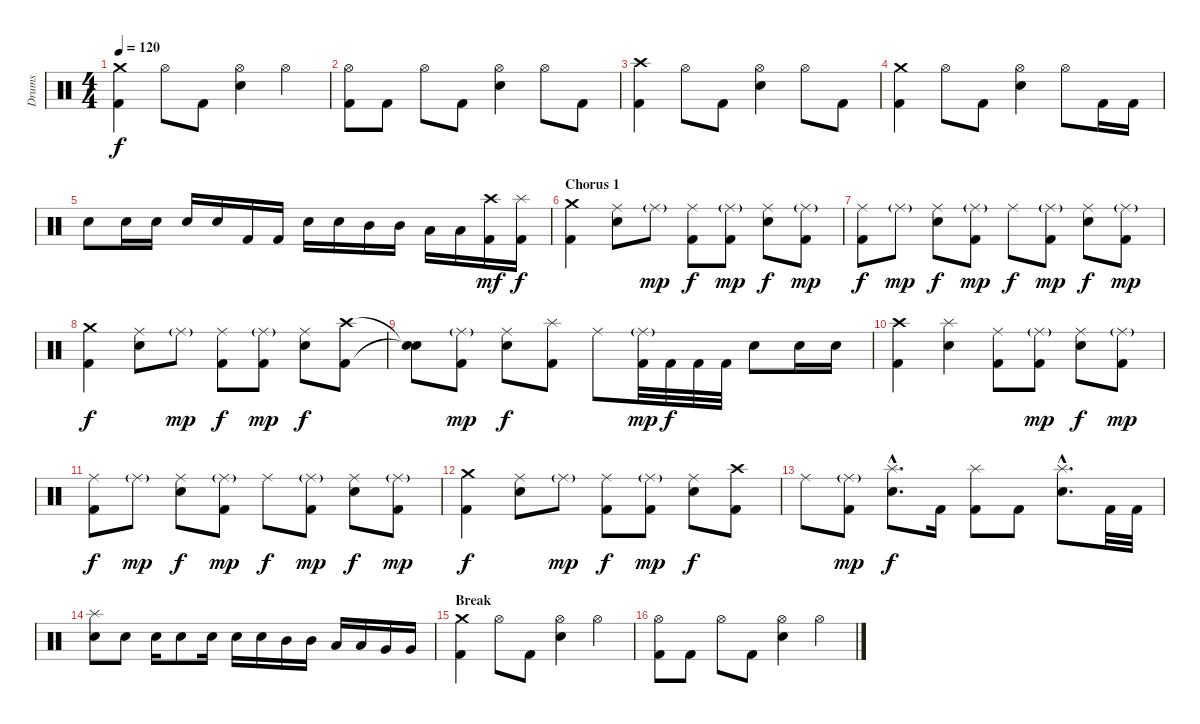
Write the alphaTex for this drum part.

\track ("Drums" "Drums") {instrument percussion}
\staff {score}
\articulation defaults
\ts (4 4)
\tempo 120
\clef neutral
\ks c
("Crash medium (hit)" "Kick (hit) 2").4{dy f} "Hi-Hat (open)".8 "Kick (hit) 2".8 ("Hi-Hat (open)" "Snare (hit) 2").4 "Hi-Hat (open)".4 |
("Hi-Hat (open)" "Kick (hit) 2").8 "Kick (hit) 2".8 "Hi-Hat (open)".8 "Kick (hit) 2".8 ("Hi-Hat (open)" "Snare (hit) 2").4 "Hi-Hat (open)".8 "Kick (hit) 2".8 |
("Crash high (hit)" "Kick (hit) 2").4 "Hi-Hat (open)".8 "Kick (hit) 2".8 ("Hi-Hat (open)" "Snare (hit) 2").4 "Hi-Hat (open)".8 "Kick (hit) 2".8 |
("Crash medium (hit)" "Kick (hit) 2").4 "Hi-Hat (open)".8 "Kick (hit) 2".8 ("Hi-Hat (open)" "Snare (hit) 2").4 "Hi-Hat (open)".8 "Kick (hit) 2".16 "Kick (hit) 2".16 |
"Snare (hit) 2".8 "Snare (hit) 2".16 "Snare (hit) 2".16 "Snare (hit) 2".16 "Snare (hit) 2".16 "Kick (hit) 2".16 "Kick (hit) 2".16 "Snare (hit) 2".16 "Snare (hit) 2".16 "Mid Tom (hit)".16 "Mid Tom (hit)".16 "Low Tom (hit)".16 "Low Tom (hit)".16 ("Crash high (hit)" "Kick (hit) 2").16{dy mf} ("Splash (hit)" "Kick (hit) 2").16{dy f} |
\section ("" "Chorus 1")
("Crash medium (hit)" "Kick (hit) 2").4 ("Ride (middle)" "Snare (hit) 2").8 "Ride (middle)"{g}.8{dy mp} ("Ride (middle)" "Kick (hit) 2").8{dy f} ("Ride (middle)"{g} "Kick (hit) 2").8{dy mp} ("Ride (middle)" "Snare (hit) 2").8{dy f} ("Ride (middle)"{g} "Kick (hit) 2").8{dy mp} |
("Ride (middle)" "Kick (hit) 2").8{dy f} "Ride (middle)"{g}.8{dy mp} ("Ride (middle)" "Snare (hit) 2").8{dy f} ("Ride (middle)"{g} "Kick (hit) 2").8{dy mp} "Ride (middle)".8{dy f} ("Ride (middle)"{g} "Kick (hit) 2").8{dy mp} ("Ride (middle)" "Snare (hit) 2").8{dy f} ("Ride (middle)"{g} "Kick (hit) 2").8{dy mp} |
("Crash medium (hit)" "Kick (hit) 2").4{dy f} ("Ride (middle)" "Snare (hit) 2").8 "Ride (middle)"{g}.8{dy mp} ("Ride (middle)" "Kick (hit) 2").8{dy f} ("Ride (middle)"{g} "Kick (hit) 2").8{dy mp} ("Ride (middle)" "Snare (hit) 2").8{dy f} ("Crash high (hit)" "Kick (hit) 2").8 |
("Snare (hit)"{t} "Snare (hit)"{t}).8 ("Ride (middle)"{g} "Kick (hit) 2").8{dy mp} ("Ride (middle)" "Snare (hit) 2").8{dy f} ("Splash (hit)" "Kick (hit) 2").8 "Ride (middle)".8 ("Ride (middle)"{g} "Kick (hit) 2").32{dy mp} "Kick (hit) 2".32{dy f} "Kick (hit) 2".32 "Kick (hit) 2".32 "Snare (hit) 2".8 "Snare (hit) 2".16 "Snare (hit) 2".16 |
("Crash high (hit)" "Kick (hit) 2").4 ("Splash (hit)" "Snare (hit) 2").4 ("Ride (middle)" "Kick (hit) 2").8 ("Ride (middle)"{g} "Kick (hit) 2").8{dy mp} ("Ride (middle)" "Snare (hit) 2").8{dy f} ("Ride (middle)"{g} "Kick (hit) 2").8{dy mp} |
("Ride (middle)" "Kick (hit) 2").8{dy f} "Ride (middle)"{g}.8{dy mp} ("Ride (middle)" "Snare (hit) 2").8{dy f} ("Ride (middle)"{g} "Kick (hit) 2").8{dy mp} "Ride (middle)".8{dy f} ("Ride (middle)"{g} "Kick (hit) 2").8{dy mp} ("Ride (middle)" "Snare (hit) 2").8{dy f} ("Ride (middle)"{g} "Kick (hit) 2").8{dy mp} |
("Crash medium (hit)" "Kick (hit) 2").4{dy f} ("Ride (middle)" "Snare (hit) 2").8 "Ride (middle)"{g}.8{dy mp} ("Ride (middle)" "Kick (hit) 2").8{dy f} ("Ride (middle)"{g} "Kick (hit) 2").8{dy mp} ("Ride (middle)" "Snare (hit) 2").8{dy f} ("Crash high (hit)" "Kick (hit) 2").8 |
"Ride (middle)".8 ("Ride (middle)"{g} "Kick (hit) 2").8{dy mp} ("Splash (hit)"{hac} "Snare (hit) 2"{hac}).8{d dy f} "Kick (hit) 2".16 ("Splash (hit)" "Kick (hit) 2").8 "Kick (hit) 2".8 ("Splash (hit)"{hac} "Snare (hit) 2"{hac}).8{d} "Kick (hit) 2".32 "Kick (hit) 2".32 |
("Splash (hit)" "Snare (hit) 2").8 "Snare (hit) 2".8 "Snare (hit) 2".16 "Snare (hit) 2".8 "Snare (hit) 2".16 "Snare (hit) 2".16 "Snare (hit) 2".16 "Mid Tom (hit)".16 "Mid Tom (hit)".16 "Low Tom (hit)".16 "Low Tom (hit)".16 "Very Low Tom (hit)".16 "Very Low Tom (hit)".16 |
\section ("" "Break")
("Crash medium (hit)" "Kick (hit) 2").4 "Hi-Hat (open)".8 "Kick (hit) 2".8 ("Hi-Hat (open)" "Snare (hit) 2").4 "Hi-Hat (open)".4 |
("Hi-Hat (open)" "Kick (hit) 2").8 "Kick (hit) 2".8 "Hi-Hat (open)".8 "Kick (hit) 2".8 ("Hi-Hat (open)" "Snare (hit) 2").4 "Hi-Hat (open)".4
